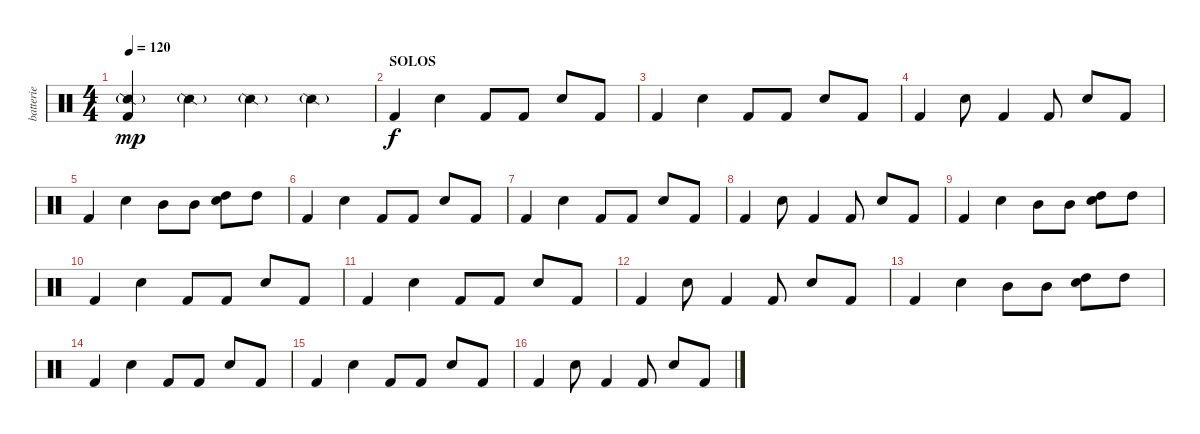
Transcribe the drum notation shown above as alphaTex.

\track ("batterie" "batterie") {instrument percussion}
\staff {score}
\articulation defaults
\ts (4 4)
\tempo 120
\clef neutral
\ks c
("Kick (hit) 2"{t} "Snare (side stick) 2"{g}).4{dy mp} "Snare (side stick) 2"{g}.4 "Snare (side stick) 2"{g}.4 "Snare (side stick) 2"{g}.4 |
\section ("" "SOLOS")
"Kick (hit) 2".4{dy f} "Electric Snare (hit)".4 "Kick (hit) 2".8 "Kick (hit) 2".8 "Electric Snare (hit)".8 "Kick (hit) 2".8 |
"Kick (hit) 2".4 "Electric Snare (hit)".4 "Kick (hit) 2".8 "Kick (hit) 2".8 "Electric Snare (hit)".8 "Kick (hit) 2".8 |
"Kick (hit) 2".4 "Electric Snare (hit)".8 "Kick (hit) 2".4 "Kick (hit) 2".8 "Electric Snare (hit)".8 "Kick (hit) 2".8 |
"Kick (hit) 2".4 "Electric Snare (hit)".4 "Mid Tom (hit)".8 "Mid Tom (hit)".8 ("Electric Snare (hit)" "High Tom (hit)").8 "High Tom (hit)".8 |
"Kick (hit) 2".4 "Electric Snare (hit)".4 "Kick (hit) 2".8 "Kick (hit) 2".8 "Electric Snare (hit)".8 "Kick (hit) 2".8 |
"Kick (hit) 2".4 "Electric Snare (hit)".4 "Kick (hit) 2".8 "Kick (hit) 2".8 "Electric Snare (hit)".8 "Kick (hit) 2".8 |
"Kick (hit) 2".4 "Electric Snare (hit)".8 "Kick (hit) 2".4 "Kick (hit) 2".8 "Electric Snare (hit)".8 "Kick (hit) 2".8 |
"Kick (hit) 2".4 "Electric Snare (hit)".4 "Mid Tom (hit)".8 "Mid Tom (hit)".8 ("Electric Snare (hit)" "High Tom (hit)").8 "High Tom (hit)".8 |
"Kick (hit) 2".4 "Electric Snare (hit)".4 "Kick (hit) 2".8 "Kick (hit) 2".8 "Electric Snare (hit)".8 "Kick (hit) 2".8 |
"Kick (hit) 2".4 "Electric Snare (hit)".4 "Kick (hit) 2".8 "Kick (hit) 2".8 "Electric Snare (hit)".8 "Kick (hit) 2".8 |
"Kick (hit) 2".4 "Electric Snare (hit)".8 "Kick (hit) 2".4 "Kick (hit) 2".8 "Electric Snare (hit)".8 "Kick (hit) 2".8 |
"Kick (hit) 2".4 "Electric Snare (hit)".4 "Mid Tom (hit)".8 "Mid Tom (hit)".8 ("Electric Snare (hit)" "High Tom (hit)").8 "High Tom (hit)".8 |
"Kick (hit) 2".4 "Electric Snare (hit)".4 "Kick (hit) 2".8 "Kick (hit) 2".8 "Electric Snare (hit)".8 "Kick (hit) 2".8 |
"Kick (hit) 2".4 "Electric Snare (hit)".4 "Kick (hit) 2".8 "Kick (hit) 2".8 "Electric Snare (hit)".8 "Kick (hit) 2".8 |
"Kick (hit) 2".4 "Electric Snare (hit)".8 "Kick (hit) 2".4 "Kick (hit) 2".8 "Electric Snare (hit)".8 "Kick (hit) 2".8
